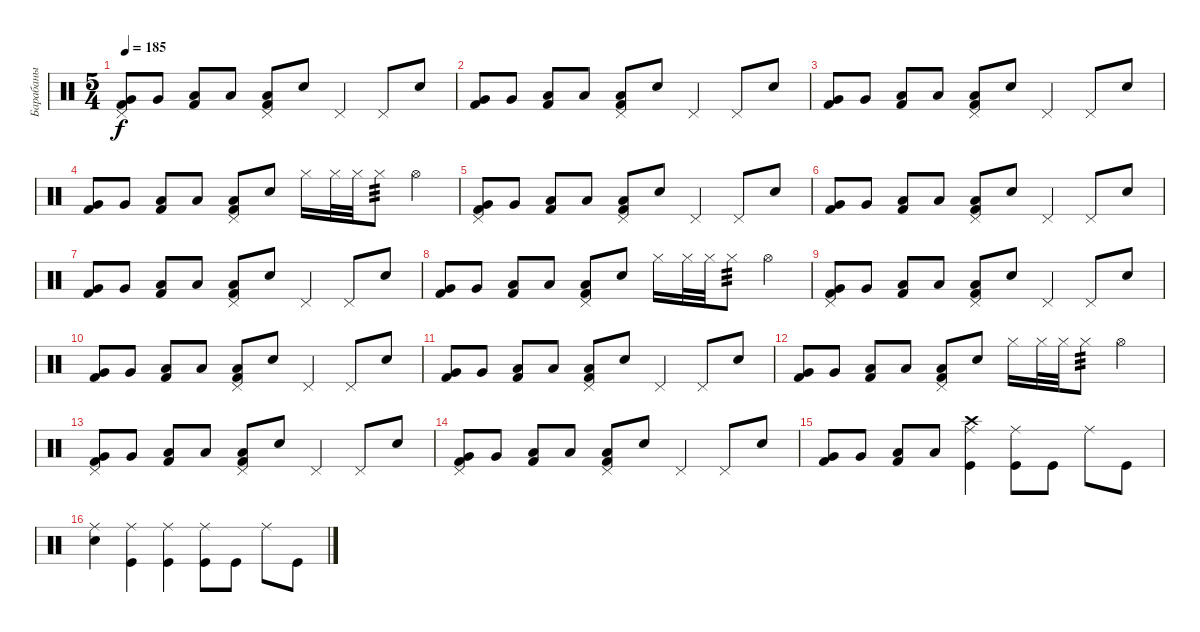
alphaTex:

\track ("Барабаны" "Барабаны") {instrument percussion}
\staff {score}
\articulation defaults
\ts (5 4)
\tempo 185
\clef neutral
\ks c
("Pedal Hi-Hat (hit)" "Very Low Tom (hit)" "Kick (hit) 2").8{dy f} "Very Low Tom (hit)".8 ("Low Floor Tom (hit)" "Kick (hit) 2").8 "Low Floor Tom (hit)".8 ("Pedal Hi-Hat (hit)" "Low Floor Tom (hit)" "Kick (hit) 2").8 "Electric Snare (hit)".8 "Pedal Hi-Hat (hit)".4 "Pedal Hi-Hat (hit)".8 "Electric Snare (hit)".8 |
("Very Low Tom (hit)" "Kick (hit) 2").8 "Very Low Tom (hit)".8 ("Low Floor Tom (hit)" "Kick (hit) 2").8 "Low Floor Tom (hit)".8 ("Pedal Hi-Hat (hit)" "Low Floor Tom (hit)" "Kick (hit) 2").8 "Electric Snare (hit)".8 "Pedal Hi-Hat (hit)".4 "Pedal Hi-Hat (hit)".8 "Electric Snare (hit)".8 |
("Very Low Tom (hit)" "Kick (hit) 2").8 "Very Low Tom (hit)".8 ("Low Floor Tom (hit)" "Kick (hit) 2").8 "Low Floor Tom (hit)".8 ("Pedal Hi-Hat (hit)" "Low Floor Tom (hit)" "Kick (hit) 2").8 "Electric Snare (hit)".8 "Pedal Hi-Hat (hit)".4 "Pedal Hi-Hat (hit)".8 "Electric Snare (hit)".8 |
("Very Low Tom (hit)" "Kick (hit) 2").8 "Very Low Tom (hit)".8 ("Low Floor Tom (hit)" "Kick (hit) 2").8 "Low Floor Tom (hit)".8 ("Pedal Hi-Hat (hit)" "Low Floor Tom (hit)" "Kick (hit) 2").8 "Electric Snare (hit)".8 "Hi-Hat (closed)".16 "Hi-Hat (closed)".32 "Hi-Hat (closed)".32 "Hi-Hat (closed)".8{tp 3} "Hi-Hat (open)".4 |
("Pedal Hi-Hat (hit)" "Very Low Tom (hit)" "Kick (hit) 2").8 "Very Low Tom (hit)".8 ("Low Floor Tom (hit)" "Kick (hit) 2").8 "Low Floor Tom (hit)".8 ("Pedal Hi-Hat (hit)" "Low Floor Tom (hit)" "Kick (hit) 2").8 "Electric Snare (hit)".8 "Pedal Hi-Hat (hit)".4 "Pedal Hi-Hat (hit)".8 "Electric Snare (hit)".8 |
("Very Low Tom (hit)" "Kick (hit) 2").8 "Very Low Tom (hit)".8 ("Low Floor Tom (hit)" "Kick (hit) 2").8 "Low Floor Tom (hit)".8 ("Pedal Hi-Hat (hit)" "Low Floor Tom (hit)" "Kick (hit) 2").8 "Electric Snare (hit)".8 "Pedal Hi-Hat (hit)".4 "Pedal Hi-Hat (hit)".8 "Electric Snare (hit)".8 |
("Very Low Tom (hit)" "Kick (hit) 2").8 "Very Low Tom (hit)".8 ("Low Floor Tom (hit)" "Kick (hit) 2").8 "Low Floor Tom (hit)".8 ("Pedal Hi-Hat (hit)" "Low Floor Tom (hit)" "Kick (hit) 2").8 "Electric Snare (hit)".8 "Pedal Hi-Hat (hit)".4 "Pedal Hi-Hat (hit)".8 "Electric Snare (hit)".8 |
("Very Low Tom (hit)" "Kick (hit) 2").8 "Very Low Tom (hit)".8 ("Low Floor Tom (hit)" "Kick (hit) 2").8 "Low Floor Tom (hit)".8 ("Pedal Hi-Hat (hit)" "Low Floor Tom (hit)" "Kick (hit) 2").8 "Electric Snare (hit)".8 "Hi-Hat (closed)".16 "Hi-Hat (closed)".32 "Hi-Hat (closed)".32 "Hi-Hat (closed)".8{tp 3} "Hi-Hat (open)".4 |
("Pedal Hi-Hat (hit)" "Very Low Tom (hit)" "Kick (hit) 2").8 "Very Low Tom (hit)".8 ("Low Floor Tom (hit)" "Kick (hit) 2").8 "Low Floor Tom (hit)".8 ("Pedal Hi-Hat (hit)" "Low Floor Tom (hit)" "Kick (hit) 2").8 "Electric Snare (hit)".8 "Pedal Hi-Hat (hit)".4 "Pedal Hi-Hat (hit)".8 "Electric Snare (hit)".8 |
("Very Low Tom (hit)" "Kick (hit) 2").8 "Very Low Tom (hit)".8 ("Low Floor Tom (hit)" "Kick (hit) 2").8 "Low Floor Tom (hit)".8 ("Pedal Hi-Hat (hit)" "Low Floor Tom (hit)" "Kick (hit) 2").8 "Electric Snare (hit)".8 "Pedal Hi-Hat (hit)".4 "Pedal Hi-Hat (hit)".8 "Electric Snare (hit)".8 |
("Very Low Tom (hit)" "Kick (hit) 2").8 "Very Low Tom (hit)".8 ("Low Floor Tom (hit)" "Kick (hit) 2").8 "Low Floor Tom (hit)".8 ("Pedal Hi-Hat (hit)" "Low Floor Tom (hit)" "Kick (hit) 2").8 "Electric Snare (hit)".8 "Pedal Hi-Hat (hit)".4 "Pedal Hi-Hat (hit)".8 "Electric Snare (hit)".8 |
("Very Low Tom (hit)" "Kick (hit) 2").8 "Very Low Tom (hit)".8 ("Low Floor Tom (hit)" "Kick (hit) 2").8 "Low Floor Tom (hit)".8 ("Pedal Hi-Hat (hit)" "Low Floor Tom (hit)" "Kick (hit) 2").8 "Electric Snare (hit)".8 "Hi-Hat (closed)".16 "Hi-Hat (closed)".32 "Hi-Hat (closed)".32 "Hi-Hat (closed)".8{tp 3} "Hi-Hat (open)".4 |
("Pedal Hi-Hat (hit)" "Very Low Tom (hit)" "Kick (hit) 2").8 "Very Low Tom (hit)".8 ("Low Floor Tom (hit)" "Kick (hit) 2").8 "Low Floor Tom (hit)".8 ("Pedal Hi-Hat (hit)" "Low Floor Tom (hit)" "Kick (hit) 2").8 "Electric Snare (hit)".8 "Pedal Hi-Hat (hit)".4 "Pedal Hi-Hat (hit)".8 "Electric Snare (hit)".8 |
("Pedal Hi-Hat (hit)" "Very Low Tom (hit)" "Kick (hit) 2").8 "Very Low Tom (hit)".8 ("Low Floor Tom (hit)" "Kick (hit) 2").8 "Low Floor Tom (hit)".8 ("Pedal Hi-Hat (hit)" "Low Floor Tom (hit)" "Kick (hit) 2").8 "Electric Snare (hit)".8 "Pedal Hi-Hat (hit)".4 "Pedal Hi-Hat (hit)".8 "Electric Snare (hit)".8 |
("Very Low Tom (hit)" "Kick (hit) 2").8 "Very Low Tom (hit)".8 ("Low Floor Tom (hit)" "Kick (hit) 2").8 "Low Floor Tom (hit)".8 ("Ride (middle)" "Crash high (hit)" "Kick (hit)").4 ("Ride (middle)" "Kick (hit)").8 "Kick (hit)".8 "Ride (middle)".8 "Kick (hit)".8 |
("Ride (middle)" "Electric Snare (hit)").4 ("Ride (middle)" "Kick (hit)").4 ("Ride (middle)" "Kick (hit)").4 ("Ride (middle)" "Kick (hit)").8 "Kick (hit)".8 "Ride (middle)".8 "Kick (hit)".8
